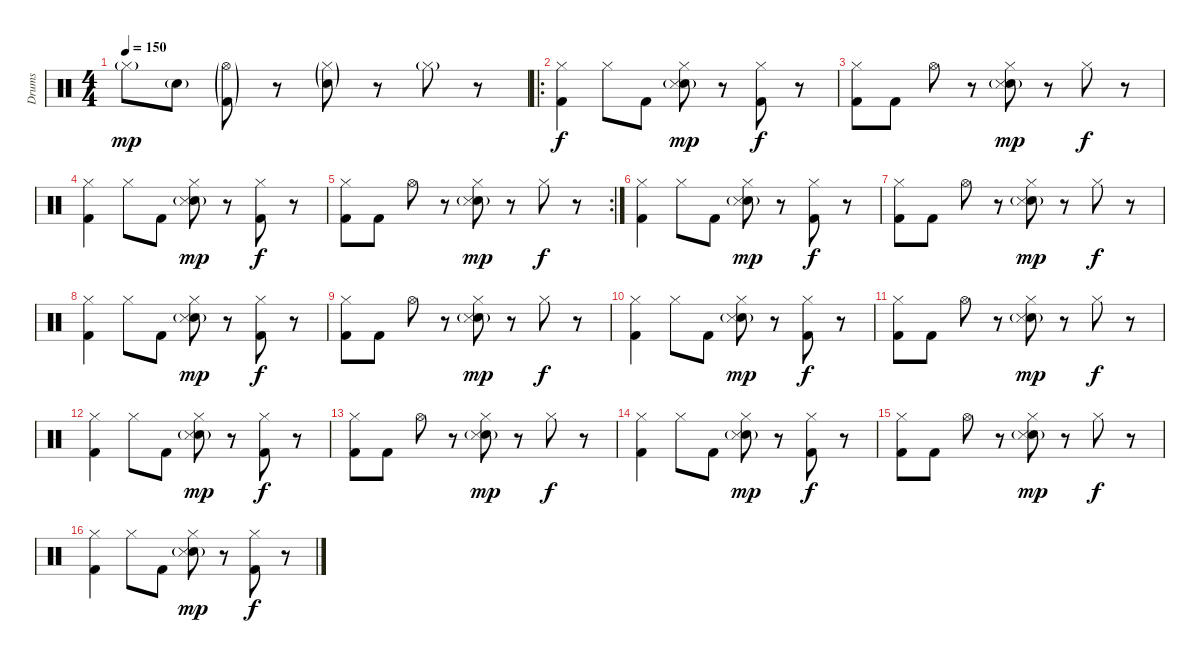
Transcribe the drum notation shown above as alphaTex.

\track ("Drums" "Drums") {instrument percussion}
\staff {score}
\articulation defaults
\ts (4 4)
\tempo 150
\clef neutral
\ks c "Hi-Hat (closed)"{g}.8{dy mp} "Snare (hit) 2"{g}.8
("Hi-Hat (open)"{g} "Kick (hit) 2"{g}).8 r.8 ("Hi-Hat (closed)"{g} "Snare (hit) 2"{g}).8 r.8 "Hi-Hat (closed)"{g}.8 r.8 |
\ro
("Hi-Hat (closed)" "Kick (hit) 2").4{dy f} "Hi-Hat (closed)".8 "Kick (hit) 2".8 ("Hi-Hat (closed)" "Snare (hit) 2"{g} "Snare (side stick) 3").8{dy mp} r.8 ("Hi-Hat (closed)" "Kick (hit) 2").8{dy f} r.8 |
("Hi-Hat (closed)" "Kick (hit) 2").8 "Kick (hit) 2".8 "Hi-Hat (open)".8 r.8 ("Hi-Hat (closed)" "Snare (hit) 2"{g} "Snare (side stick) 3").8{dy mp} r.8 "Hi-Hat (closed)".8{dy f} r.8 |
("Hi-Hat (closed)" "Kick (hit) 2").4 "Hi-Hat (closed)".8 "Kick (hit) 2".8 ("Hi-Hat (closed)" "Snare (hit) 2"{g} "Snare (side stick) 3").8{dy mp} r.8 ("Hi-Hat (closed)" "Kick (hit) 2").8{dy f} r.8 |
\rc 2
("Hi-Hat (closed)" "Kick (hit) 2").8 "Kick (hit) 2".8 "Hi-Hat (open)".8 r.8 ("Hi-Hat (closed)" "Snare (hit) 2"{g} "Snare (side stick) 3").8{dy mp} r.8 "Hi-Hat (closed)".8{dy f} r.8 |
("Hi-Hat (closed)" "Kick (hit) 2").4 "Hi-Hat (closed)".8 "Kick (hit) 2".8 ("Hi-Hat (closed)" "Snare (hit) 2"{g} "Snare (side stick) 3").8{dy mp} r.8 ("Hi-Hat (closed)" "Kick (hit) 2").8{dy f} r.8 |
("Hi-Hat (closed)" "Kick (hit) 2").8 "Kick (hit) 2".8 "Hi-Hat (open)".8 r.8 ("Hi-Hat (closed)" "Snare (hit) 2"{g} "Snare (side stick) 3").8{dy mp} r.8 "Hi-Hat (closed)".8{dy f} r.8 |
("Hi-Hat (closed)" "Kick (hit) 2").4 "Hi-Hat (closed)".8 "Kick (hit) 2".8 ("Hi-Hat (closed)" "Snare (hit) 2"{g} "Snare (side stick) 3").8{dy mp} r.8 ("Hi-Hat (closed)" "Kick (hit) 2").8{dy f} r.8 |
("Hi-Hat (closed)" "Kick (hit) 2").8 "Kick (hit) 2".8 "Hi-Hat (open)".8 r.8 ("Hi-Hat (closed)" "Snare (hit) 2"{g} "Snare (side stick) 3").8{dy mp} r.8 "Hi-Hat (closed)".8{dy f} r.8 |
("Hi-Hat (closed)" "Kick (hit) 2").4 "Hi-Hat (closed)".8 "Kick (hit) 2".8 ("Hi-Hat (closed)" "Snare (hit) 2"{g} "Snare (side stick) 3").8{dy mp} r.8 ("Hi-Hat (closed)" "Kick (hit) 2").8{dy f} r.8 |
("Hi-Hat (closed)" "Kick (hit) 2").8 "Kick (hit) 2".8 "Hi-Hat (open)".8 r.8 ("Hi-Hat (closed)" "Snare (hit) 2"{g} "Snare (side stick) 3").8{dy mp} r.8 "Hi-Hat (closed)".8{dy f} r.8 |
("Hi-Hat (closed)" "Kick (hit) 2").4 "Hi-Hat (closed)".8 "Kick (hit) 2".8 ("Hi-Hat (closed)" "Snare (hit) 2"{g} "Snare (side stick) 3").8{dy mp} r.8 ("Hi-Hat (closed)" "Kick (hit) 2").8{dy f} r.8 |
("Hi-Hat (closed)" "Kick (hit) 2").8 "Kick (hit) 2".8 "Hi-Hat (open)".8 r.8 ("Hi-Hat (closed)" "Snare (hit) 2"{g} "Snare (side stick) 3").8{dy mp} r.8 "Hi-Hat (closed)".8{dy f} r.8 |
("Hi-Hat (closed)" "Kick (hit) 2").4 "Hi-Hat (closed)".8 "Kick (hit) 2".8 ("Hi-Hat (closed)" "Snare (hit) 2"{g} "Snare (side stick) 3").8{dy mp} r.8 ("Hi-Hat (closed)" "Kick (hit) 2").8{dy f} r.8 |
("Hi-Hat (closed)" "Kick (hit) 2").8 "Kick (hit) 2".8 "Hi-Hat (open)".8 r.8 ("Hi-Hat (closed)" "Snare (hit) 2"{g} "Snare (side stick) 3").8{dy mp} r.8 "Hi-Hat (closed)".8{dy f} r.8 |
("Hi-Hat (closed)" "Kick (hit) 2").4 "Hi-Hat (closed)".8 "Kick (hit) 2".8 ("Hi-Hat (closed)" "Snare (hit) 2"{g} "Snare (side stick) 3").8{dy mp} r.8 ("Hi-Hat (closed)" "Kick (hit) 2").8{dy f} r.8
